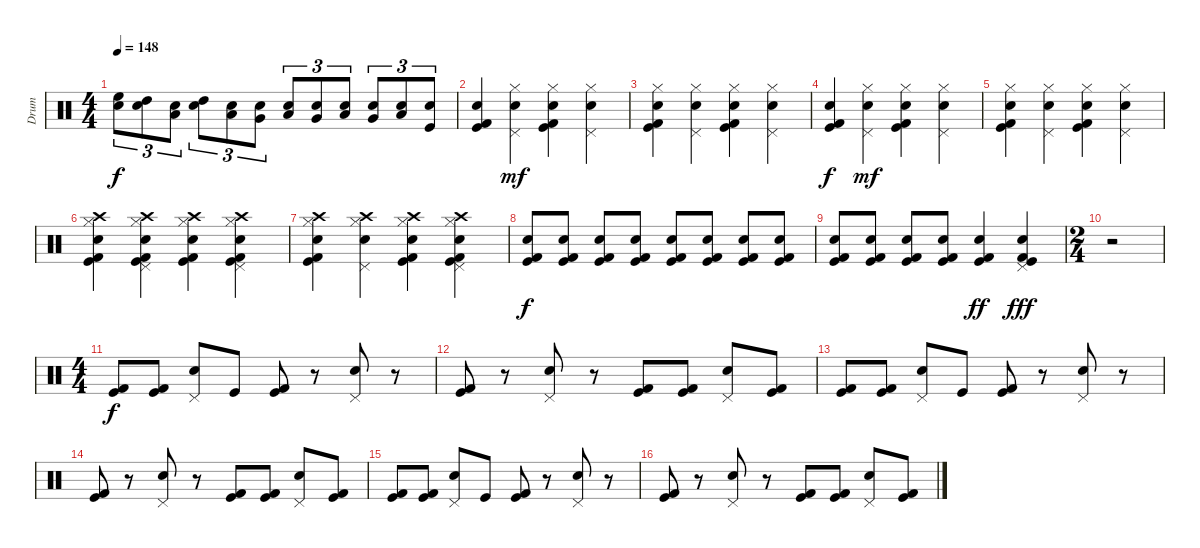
\track ("Drum" "Drum") {instrument percussion}
\staff {score}
\articulation defaults
\ts (4 4)
\tempo 148
\clef neutral
\ks c
("High Floor Tom (hit)" "Electric Snare (hit)").8{tu (3 2) dy f} ("High Tom (hit)" "Electric Snare (hit)").8{tu (3 2)} ("Low Tom (hit)" "Electric Snare (hit)").8{tu (3 2)} ("High Tom (hit)" "Electric Snare (hit)").8{tu (3 2)} ("Low Tom (hit)" "Electric Snare (hit)").8{tu (3 2)} ("Very Low Tom (hit)" "Electric Snare (hit)").8{tu (3 2)} ("Low Tom (hit)" "Electric Snare (hit)").8{tu (3 2)} ("Very Low Tom (hit)" "Electric Snare (hit)").8{tu (3 2)} ("Low Floor Tom (hit)" "Electric Snare (hit)").8{tu (3 2)} ("Very Low Tom (hit)" "Electric Snare (hit)").8{tu (3 2)} ("Low Floor Tom (hit)" "Electric Snare (hit)").8{tu (3 2)} ("Electric Snare (hit)" "Kick (hit)").8{tu (3 2)} |
("Snare (hit) 2" "Kick (hit)" "Kick (hit) 2").4 ("Pedal Hi-Hat (hit)" "Hi-Hat (closed)" "Snare (hit) 2").4{dy mf} ("Hi-Hat (closed)" "Snare (hit) 2" "Kick (hit)" "Kick (hit) 2").4 ("Pedal Hi-Hat (hit)" "Hi-Hat (closed)" "Snare (hit) 2").4 |
("Hi-Hat (closed)" "Snare (hit) 2" "Kick (hit)" "Kick (hit) 2").4 ("Pedal Hi-Hat (hit)" "Hi-Hat (closed)" "Snare (hit) 2").4 ("Hi-Hat (closed)" "Snare (hit) 2" "Kick (hit)" "Kick (hit) 2").4 ("Pedal Hi-Hat (hit)" "Hi-Hat (closed)" "Snare (hit) 2").4 |
("Snare (hit) 2" "Kick (hit)" "Kick (hit) 2").4{dy f} ("Pedal Hi-Hat (hit)" "Hi-Hat (closed)" "Snare (hit) 2").4{dy mf} ("Hi-Hat (closed)" "Snare (hit) 2" "Kick (hit)" "Kick (hit) 2").4 ("Pedal Hi-Hat (hit)" "Hi-Hat (closed)" "Snare (hit) 2").4 |
("Hi-Hat (closed)" "Snare (hit) 2" "Kick (hit)" "Kick (hit) 2").4 ("Pedal Hi-Hat (hit)" "Hi-Hat (closed)" "Snare (hit) 2").4 ("Hi-Hat (closed)" "Snare (hit) 2" "Kick (hit)" "Kick (hit) 2").4 ("Pedal Hi-Hat (hit)" "Hi-Hat (closed)" "Snare (hit) 2").4 |
("Crash high (hit)" "Hi-Hat (closed)" "Snare (hit) 2" "Kick (hit)" "Kick (hit) 2").4 ("Crash high (hit)" "Pedal Hi-Hat (hit)" "Hi-Hat (closed)" "Snare (hit) 2" "Kick (hit)" "Kick (hit) 2").4 ("Crash high (hit)" "Hi-Hat (closed)" "Snare (hit) 2" "Kick (hit)" "Kick (hit) 2").4 ("Crash high (hit)" "Pedal Hi-Hat (hit)" "Hi-Hat (closed)" "Snare (hit) 2" "Kick (hit)" "Kick (hit) 2").4 |
("Crash high (hit)" "Hi-Hat (closed)" "Snare (hit) 2" "Kick (hit)" "Kick (hit) 2").4 ("Crash high (hit)" "Pedal Hi-Hat (hit)" "Hi-Hat (closed)" "Snare (hit) 2").4 ("Crash high (hit)" "Hi-Hat (closed)" "Snare (hit) 2" "Kick (hit)" "Kick (hit) 2").4 ("Crash high (hit)" "Pedal Hi-Hat (hit)" "Hi-Hat (closed)" "Snare (hit) 2" "Kick (hit)" "Kick (hit) 2").4 |
("Electric Snare (hit)" "Kick (hit)" "Kick (hit) 2").8{dy f volume 2} ("Electric Snare (hit)" "Kick (hit)" "Kick (hit) 2").8 ("Electric Snare (hit)" "Kick (hit)" "Kick (hit) 2").8{volume 5} ("Electric Snare (hit)" "Kick (hit)" "Kick (hit) 2").8 ("Electric Snare (hit)" "Kick (hit)" "Kick (hit) 2").8{volume 6} ("Electric Snare (hit)" "Kick (hit)" "Kick (hit) 2").8 ("Electric Snare (hit)" "Kick (hit)" "Kick (hit) 2").8{volume 8} ("Electric Snare (hit)" "Kick (hit)" "Kick (hit) 2").8 |
("Electric Snare (hit)" "Kick (hit)" "Kick (hit) 2").8{volume 11} ("Electric Snare (hit)" "Kick (hit)" "Kick (hit) 2").8 ("Electric Snare (hit)" "Kick (hit)" "Kick (hit) 2").8{volume 13} ("Electric Snare (hit)" "Kick (hit)" "Kick (hit) 2").8 ("Electric Snare (hit)" "Kick (hit)" "Kick (hit) 2").4{dy ff} ("Pedal Hi-Hat (hit)" "Electric Snare (hit)" "Kick (hit)" "Kick (hit) 2").4{dy fff} |
\ts (2 4)
r.2 |
\ts (4 4)
("Kick (hit)" "Kick (hit) 2").8{dy f} ("Kick (hit)" "Kick (hit) 2").8 ("Pedal Hi-Hat (hit)" "Snare (hit) 2").8 "Kick (hit)".8 ("Kick (hit)" "Kick (hit) 2").8 r.8 ("Pedal Hi-Hat (hit)" "Snare (hit) 2").8 r.8 |
("Kick (hit)" "Kick (hit) 2").8 r.8 ("Pedal Hi-Hat (hit)" "Snare (hit) 2").8 r.8 ("Kick (hit)" "Kick (hit) 2").8 ("Kick (hit)" "Kick (hit) 2").8 ("Pedal Hi-Hat (hit)" "Snare (hit) 2").8 ("Kick (hit)" "Kick (hit) 2").8 |
("Kick (hit)" "Kick (hit) 2").8 ("Kick (hit)" "Kick (hit) 2").8 ("Pedal Hi-Hat (hit)" "Snare (hit) 2").8 "Kick (hit)".8 ("Kick (hit)" "Kick (hit) 2").8 r.8 ("Pedal Hi-Hat (hit)" "Snare (hit) 2").8 r.8 |
("Kick (hit)" "Kick (hit) 2").8 r.8 ("Pedal Hi-Hat (hit)" "Snare (hit) 2").8 r.8 ("Kick (hit)" "Kick (hit) 2").8 ("Kick (hit)" "Kick (hit) 2").8 ("Pedal Hi-Hat (hit)" "Snare (hit) 2").8 ("Kick (hit)" "Kick (hit) 2").8 |
("Kick (hit)" "Kick (hit) 2").8 ("Kick (hit)" "Kick (hit) 2").8 ("Pedal Hi-Hat (hit)" "Snare (hit) 2").8 "Kick (hit)".8 ("Kick (hit)" "Kick (hit) 2").8 r.8 ("Pedal Hi-Hat (hit)" "Snare (hit) 2").8 r.8 |
("Kick (hit)" "Kick (hit) 2").8 r.8 ("Pedal Hi-Hat (hit)" "Snare (hit) 2").8 r.8 ("Kick (hit)" "Kick (hit) 2").8 ("Kick (hit)" "Kick (hit) 2").8 ("Pedal Hi-Hat (hit)" "Snare (hit) 2").8 ("Kick (hit)" "Kick (hit) 2").8
